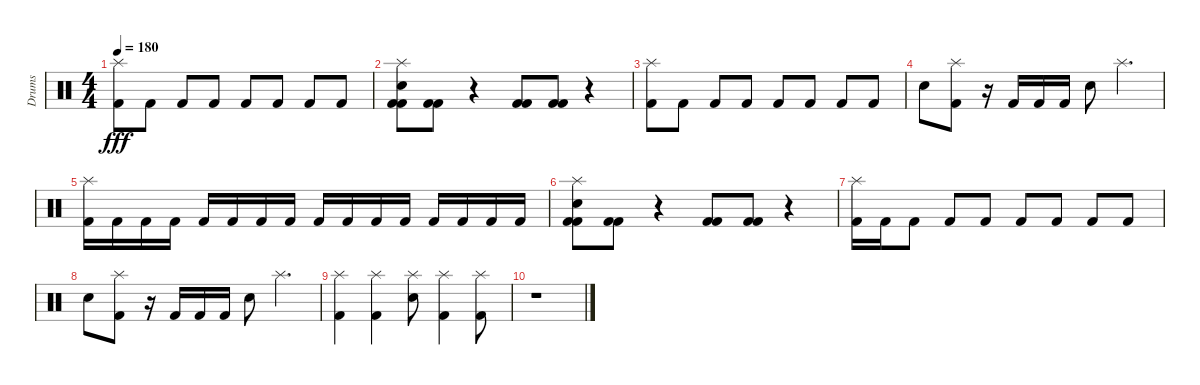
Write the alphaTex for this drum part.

\track ("Drums" "Drums") {instrument percussion}
\staff {score}
\articulation defaults
\ts (4 4)
\tempo 180
\clef neutral
\ks c
("Splash (hit)" "Kick (hit) 2").8{dy fff} "Kick (hit) 2".8 "Kick (hit) 2".8 "Kick (hit) 2".8 "Kick (hit) 2".8 "Kick (hit) 2".8 "Kick (hit) 2".8 "Kick (hit) 2".8 |
("Splash (hit)" "Snare (hit) 2" "Kick (hit) 2" "Kick (hit) 2").8 ("Kick (hit) 2" "Kick (hit) 2").8 r.4 ("Kick (hit) 2" "Kick (hit) 2").8 ("Kick (hit) 2" "Kick (hit) 2").8 r.4 |
("Splash (hit)" "Kick (hit) 2").8 "Kick (hit) 2".8 "Kick (hit) 2".8 "Kick (hit) 2".8 "Kick (hit) 2".8 "Kick (hit) 2".8 "Kick (hit) 2".8 "Kick (hit) 2".8 |
"Snare (hit) 2".8 ("Splash (hit)" "Kick (hit) 2").8 r.16 "Kick (hit) 2".16 "Kick (hit) 2".16 "Kick (hit) 2".16 "Snare (hit) 2".8 "Splash (hit)".4{d} |
("Splash (hit)" "Kick (hit) 2").16 "Kick (hit) 2".16 "Kick (hit) 2".16 "Kick (hit) 2".16 "Kick (hit) 2".16 "Kick (hit) 2".16 "Kick (hit) 2".16 "Kick (hit) 2".16 "Kick (hit) 2".16 "Kick (hit) 2".16 "Kick (hit) 2".16 "Kick (hit) 2".16 "Kick (hit) 2".16 "Kick (hit) 2".16 "Kick (hit) 2".16 "Kick (hit) 2".16 |
("Splash (hit)" "Snare (hit) 2" "Kick (hit) 2" "Kick (hit) 2").8 ("Kick (hit) 2" "Kick (hit) 2").8 r.4 ("Kick (hit) 2" "Kick (hit) 2").8 ("Kick (hit) 2" "Kick (hit) 2").8 r.4 |
("Splash (hit)" "Kick (hit) 2").16 "Kick (hit) 2".16 "Kick (hit) 2".8 "Kick (hit) 2".8 "Kick (hit) 2".8 "Kick (hit) 2".8 "Kick (hit) 2".8 "Kick (hit) 2".8 "Kick (hit) 2".8 |
"Snare (hit) 2".8 ("Splash (hit)" "Kick (hit) 2").8 r.16 "Kick (hit) 2".16 "Kick (hit) 2".16 "Kick (hit) 2".16 "Snare (hit) 2".8 "Splash (hit)".4{d} |
("Splash (hit)" "Kick (hit) 2").4 ("Splash (hit)" "Kick (hit) 2").4 ("Splash (hit)" "Snare (hit) 2").8 ("Splash (hit)" "Kick (hit) 2").4 ("Splash (hit)" "Kick (hit) 2").8 |
r.1
